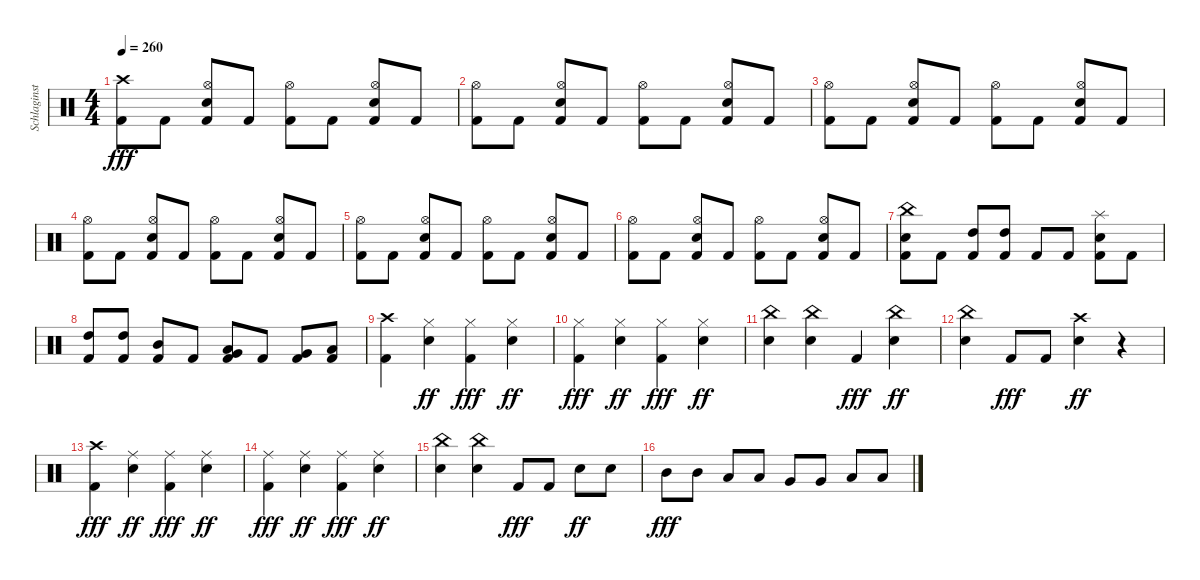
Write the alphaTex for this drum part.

\track ("Schlaginstrumente - Auswahl" "Schlaginst") {instrument percussion}
\staff {score}
\articulation defaults
\ts (4 4)
\tempo 260
\clef neutral
\ks c
("Crash high (hit)" "Kick (hit) 2").8{dy fff} "Kick (hit) 2".8 ("Hi-Hat (open)" "Snare (hit) 2" "Kick (hit) 2").8 "Kick (hit) 2".8 ("Hi-Hat (open)" "Kick (hit) 2").8 "Kick (hit) 2".8 ("Hi-Hat (open)" "Snare (hit) 2" "Kick (hit) 2").8 "Kick (hit) 2".8 |
("Hi-Hat (open)" "Kick (hit) 2").8 "Kick (hit) 2".8 ("Hi-Hat (open)" "Snare (hit) 2" "Kick (hit) 2").8 "Kick (hit) 2".8 ("Hi-Hat (open)" "Kick (hit) 2").8 "Kick (hit) 2".8 ("Hi-Hat (open)" "Snare (hit) 2" "Kick (hit) 2").8 "Kick (hit) 2".8 |
("Hi-Hat (open)" "Kick (hit) 2").8 "Kick (hit) 2".8 ("Hi-Hat (open)" "Snare (hit) 2" "Kick (hit) 2").8 "Kick (hit) 2".8 ("Hi-Hat (open)" "Kick (hit) 2").8 "Kick (hit) 2".8 ("Hi-Hat (open)" "Snare (hit) 2" "Kick (hit) 2").8 "Kick (hit) 2".8 |
("Hi-Hat (open)" "Kick (hit) 2").8 "Kick (hit) 2".8 ("Hi-Hat (open)" "Snare (hit) 2" "Kick (hit) 2").8 "Kick (hit) 2".8 ("Hi-Hat (open)" "Kick (hit) 2").8 "Kick (hit) 2".8 ("Hi-Hat (open)" "Snare (hit) 2" "Kick (hit) 2").8 "Kick (hit) 2".8 |
("Hi-Hat (open)" "Kick (hit) 2").8 "Kick (hit) 2".8 ("Hi-Hat (open)" "Snare (hit) 2" "Kick (hit) 2").8 "Kick (hit) 2".8 ("Hi-Hat (open)" "Kick (hit) 2").8 "Kick (hit) 2".8 ("Hi-Hat (open)" "Snare (hit) 2" "Kick (hit) 2").8 "Kick (hit) 2".8 |
("Hi-Hat (open)" "Kick (hit) 2").8 "Kick (hit) 2".8 ("Hi-Hat (open)" "Snare (hit) 2" "Kick (hit) 2").8 "Kick (hit) 2".8 ("Hi-Hat (open)" "Kick (hit) 2").8 "Kick (hit) 2".8 ("Hi-Hat (open)" "Snare (hit) 2" "Kick (hit) 2").8 "Kick (hit) 2".8 |
("China (hit)" "Snare (hit) 2" "Kick (hit) 2").8 "Kick (hit) 2".8 ("High Tom (hit)" "Kick (hit) 2").8 ("High Tom (hit)" "Kick (hit) 2").8 "Kick (hit) 2".8 "Kick (hit) 2".8 ("Splash (hit)" "Snare (hit) 2" "Kick (hit) 2").8 "Kick (hit) 2".8 |
("High Tom (hit)" "Kick (hit) 2").8 ("High Tom (hit)" "Kick (hit) 2").8 ("Mid Tom (hit)" "Kick (hit) 2").8 "Kick (hit) 2".8 ("Low Tom (hit)" "Very Low Tom (hit)" "Kick (hit) 2").8 "Kick (hit) 2".8 ("Very Low Tom (hit)" "Kick (hit) 2").8 ("Low Tom (hit)" "Kick (hit) 2").8 |
("Crash high (hit)" "Kick (hit) 2").4 ("Hi-Hat (closed)" "Snare (hit) 2").4{dy ff} ("Hi-Hat (closed)" "Kick (hit) 2").4{dy fff} ("Hi-Hat (closed)" "Snare (hit) 2").4{dy ff} |
("Hi-Hat (closed)" "Kick (hit) 2").4{dy fff} ("Hi-Hat (closed)" "Snare (hit) 2").4{dy ff} ("Hi-Hat (closed)" "Kick (hit) 2").4{dy fff} ("Hi-Hat (closed)" "Snare (hit) 2").4{dy ff} |
("China (hit)" "Snare (hit) 2").4 ("China (hit)" "Snare (hit) 2").4 "Kick (hit) 2".4{dy fff} ("China (hit)" "Snare (hit) 2").4{dy ff} |
("China (hit)" "Snare (hit) 2").4 "Kick (hit) 2".8{dy fff} "Kick (hit) 2".8 ("Crash high (hit)" "Snare (hit) 2").4{dy ff} r.4 |
("Crash high (hit)" "Kick (hit) 2").4{dy fff} ("Ride (middle)" "Snare (hit) 2").4{dy ff} ("Ride (middle)" "Kick (hit) 2").4{dy fff} ("Ride (middle)" "Snare (hit) 2").4{dy ff} |
("Ride (middle)" "Kick (hit) 2").4{dy fff} ("Ride (middle)" "Snare (hit) 2").4{dy ff} ("Ride (middle)" "Kick (hit) 2").4{dy fff} ("Ride (middle)" "Snare (hit) 2").4{dy ff} |
("China (hit)" "Snare (hit) 2").4 ("China (hit)" "Snare (hit) 2").4 "Kick (hit) 2".8{dy fff} "Kick (hit) 2".8 "Snare (hit) 2".8{dy ff} "Snare (hit) 2".8 |
"Mid Tom (hit)".8{dy fff} "Mid Tom (hit)".8 "Low Tom (hit)".8 "Low Tom (hit)".8 "Very Low Tom (hit)".8 "Very Low Tom (hit)".8 "Low Floor Tom (hit)".8 "Low Floor Tom (hit)".8
